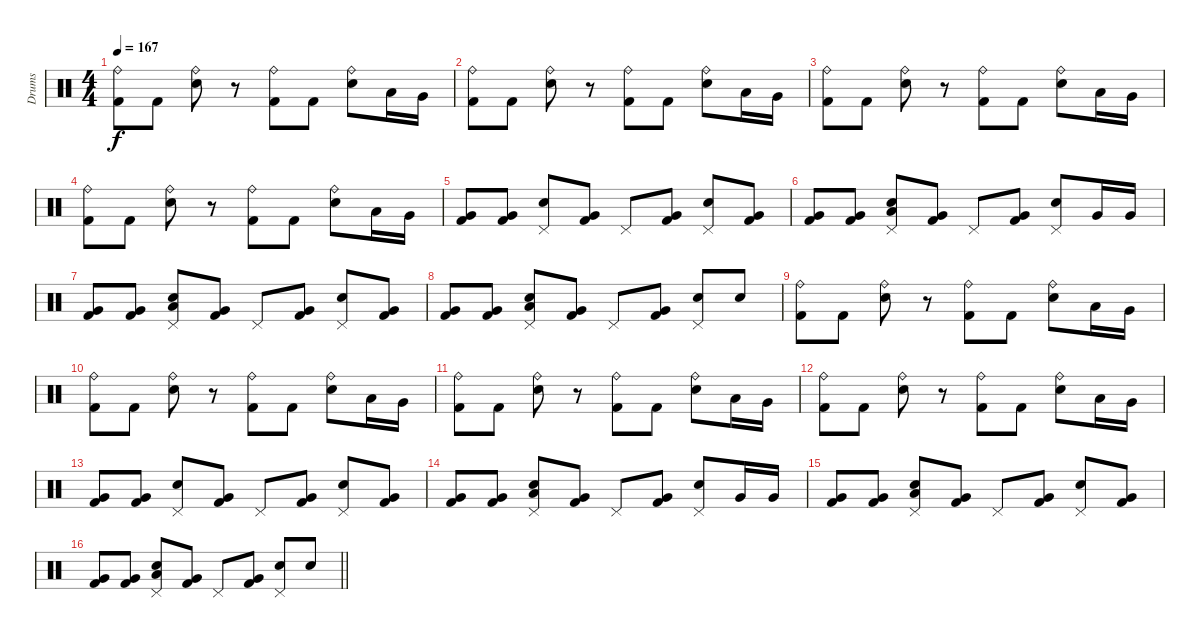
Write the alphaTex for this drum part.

\track ("Drums" "Drums") {instrument percussion}
\staff {score}
\articulation defaults
\ts (4 4)
\tempo 167
\clef neutral
\ks c
("Ride (bell)" "Kick (hit) 2").8{dy f} "Kick (hit) 2".8 ("Ride (bell)" "Electric Snare (hit)").8 r.8 ("Ride (bell)" "Kick (hit) 2").8 "Kick (hit) 2".8 ("Ride (bell)" "Electric Snare (hit)").8 "Low Tom (hit)".16 "Very Low Tom (hit)".16 |
("Ride (bell)" "Kick (hit) 2").8 "Kick (hit) 2".8 ("Ride (bell)" "Electric Snare (hit)").8 r.8 ("Ride (bell)" "Kick (hit) 2").8 "Kick (hit) 2".8 ("Ride (bell)" "Electric Snare (hit)").8 "Low Tom (hit)".16 "Very Low Tom (hit)".16 |
("Ride (bell)" "Kick (hit) 2").8 "Kick (hit) 2".8 ("Ride (bell)" "Electric Snare (hit)").8 r.8 ("Ride (bell)" "Kick (hit) 2").8 "Kick (hit) 2".8 ("Ride (bell)" "Electric Snare (hit)").8 "Low Tom (hit)".16 "Very Low Tom (hit)".16 |
("Ride (bell)" "Kick (hit) 2").8 "Kick (hit) 2".8 ("Ride (bell)" "Electric Snare (hit)").8 r.8 ("Ride (bell)" "Kick (hit) 2").8 "Kick (hit) 2".8 ("Ride (bell)" "Electric Snare (hit)").8 "Low Tom (hit)".16 "Very Low Tom (hit)".16 |
("Very Low Tom (hit)" "Kick (hit) 2").8 ("Very Low Tom (hit)" "Kick (hit) 2").8 ("Electric Snare (hit)" "Pedal Hi-Hat (hit)").8 ("Very Low Tom (hit)" "Kick (hit) 2").8 "Pedal Hi-Hat (hit)".8 ("Very Low Tom (hit)" "Kick (hit) 2").8 ("Electric Snare (hit)" "Pedal Hi-Hat (hit)").8 ("Very Low Tom (hit)" "Kick (hit) 2").8 |
("Very Low Tom (hit)" "Kick (hit) 2").8 ("Very Low Tom (hit)" "Kick (hit) 2").8 ("Electric Snare (hit)" "Pedal Hi-Hat (hit)" "Low Floor Tom (hit)").8 ("Very Low Tom (hit)" "Kick (hit) 2").8 "Pedal Hi-Hat (hit)".8 ("Very Low Tom (hit)" "Kick (hit) 2").8 ("Electric Snare (hit)" "Pedal Hi-Hat (hit)").8 "Very Low Tom (hit)".16 "Very Low Tom (hit)".16 |
("Very Low Tom (hit)" "Kick (hit) 2").8 ("Very Low Tom (hit)" "Kick (hit) 2").8 ("Electric Snare (hit)" "Pedal Hi-Hat (hit)" "Low Floor Tom (hit)").8 ("Very Low Tom (hit)" "Kick (hit) 2").8 "Pedal Hi-Hat (hit)".8 ("Very Low Tom (hit)" "Kick (hit) 2").8 ("Electric Snare (hit)" "Pedal Hi-Hat (hit)").8 ("Very Low Tom (hit)" "Kick (hit) 2").8 |
("Very Low Tom (hit)" "Kick (hit) 2").8 ("Very Low Tom (hit)" "Kick (hit) 2").8 ("Electric Snare (hit)" "Pedal Hi-Hat (hit)" "Low Floor Tom (hit)").8 ("Very Low Tom (hit)" "Kick (hit) 2").8 "Pedal Hi-Hat (hit)".8 ("Very Low Tom (hit)" "Kick (hit) 2").8 ("Electric Snare (hit)" "Pedal Hi-Hat (hit)").8 "Electric Snare (hit)".8 |
("Ride (bell)" "Kick (hit) 2").8 "Kick (hit) 2".8 ("Ride (bell)" "Electric Snare (hit)").8 r.8 ("Ride (bell)" "Kick (hit) 2").8 "Kick (hit) 2".8 ("Ride (bell)" "Electric Snare (hit)").8 "Low Tom (hit)".16 "Very Low Tom (hit)".16 |
("Ride (bell)" "Kick (hit) 2").8 "Kick (hit) 2".8 ("Ride (bell)" "Electric Snare (hit)").8 r.8 ("Ride (bell)" "Kick (hit) 2").8 "Kick (hit) 2".8 ("Ride (bell)" "Electric Snare (hit)").8 "Low Tom (hit)".16 "Very Low Tom (hit)".16 |
("Ride (bell)" "Kick (hit) 2").8 "Kick (hit) 2".8 ("Ride (bell)" "Electric Snare (hit)").8 r.8 ("Ride (bell)" "Kick (hit) 2").8 "Kick (hit) 2".8 ("Ride (bell)" "Electric Snare (hit)").8 "Low Tom (hit)".16 "Very Low Tom (hit)".16 |
("Ride (bell)" "Kick (hit) 2").8 "Kick (hit) 2".8 ("Ride (bell)" "Electric Snare (hit)").8 r.8 ("Ride (bell)" "Kick (hit) 2").8 "Kick (hit) 2".8 ("Ride (bell)" "Electric Snare (hit)").8 "Low Tom (hit)".16 "Very Low Tom (hit)".16 |
("Very Low Tom (hit)" "Kick (hit) 2").8 ("Very Low Tom (hit)" "Kick (hit) 2").8 ("Electric Snare (hit)" "Pedal Hi-Hat (hit)").8 ("Very Low Tom (hit)" "Kick (hit) 2").8 "Pedal Hi-Hat (hit)".8 ("Very Low Tom (hit)" "Kick (hit) 2").8 ("Electric Snare (hit)" "Pedal Hi-Hat (hit)").8 ("Very Low Tom (hit)" "Kick (hit) 2").8 |
("Very Low Tom (hit)" "Kick (hit) 2").8 ("Very Low Tom (hit)" "Kick (hit) 2").8 ("Electric Snare (hit)" "Pedal Hi-Hat (hit)" "Low Floor Tom (hit)").8 ("Very Low Tom (hit)" "Kick (hit) 2").8 "Pedal Hi-Hat (hit)".8 ("Very Low Tom (hit)" "Kick (hit) 2").8 ("Electric Snare (hit)" "Pedal Hi-Hat (hit)").8 "Very Low Tom (hit)".16 "Very Low Tom (hit)".16 |
("Very Low Tom (hit)" "Kick (hit) 2").8 ("Very Low Tom (hit)" "Kick (hit) 2").8 ("Electric Snare (hit)" "Pedal Hi-Hat (hit)" "Low Floor Tom (hit)").8 ("Very Low Tom (hit)" "Kick (hit) 2").8 "Pedal Hi-Hat (hit)".8 ("Very Low Tom (hit)" "Kick (hit) 2").8 ("Electric Snare (hit)" "Pedal Hi-Hat (hit)").8 ("Very Low Tom (hit)" "Kick (hit) 2").8 |
\barLineRight lightlight
("Very Low Tom (hit)" "Kick (hit) 2").8 ("Very Low Tom (hit)" "Kick (hit) 2").8 ("Electric Snare (hit)" "Pedal Hi-Hat (hit)" "Low Floor Tom (hit)").8 ("Very Low Tom (hit)" "Kick (hit) 2").8 "Pedal Hi-Hat (hit)".8 ("Very Low Tom (hit)" "Kick (hit) 2").8 ("Electric Snare (hit)" "Pedal Hi-Hat (hit)").8 "Electric Snare (hit)".8
